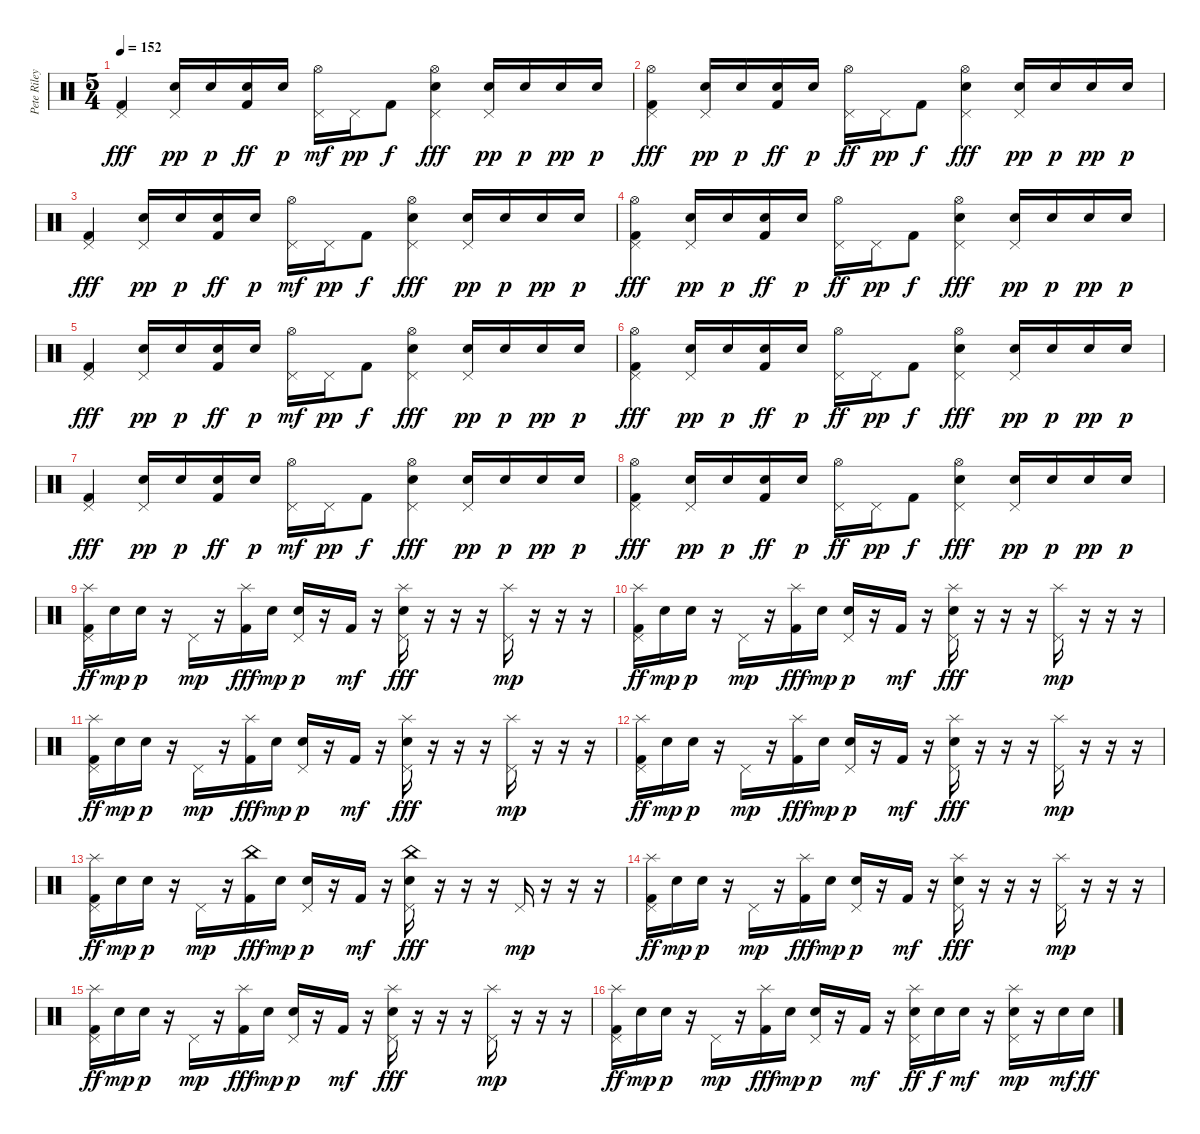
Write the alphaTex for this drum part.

\track ("Pete Riley" "Pete Riley") {instrument percussion}
\staff {score}
\articulation defaults
\ts (5 4)
\tempo 152
\clef neutral
\ks c
("Pedal Hi-Hat (hit)" "Kick (hit) 2").4{dy fff} ("Pedal Hi-Hat (hit)" "Electric Snare (hit)").16{dy pp} "Electric Snare (hit)".16{dy p} ("Electric Snare (hit)" "Kick (hit) 2").16{dy ff} "Electric Snare (hit)".16{dy p} ("Pedal Hi-Hat (hit)" "Hi-Hat (open)").16{dy mf} "Pedal Hi-Hat (hit)".16{dy pp} "Kick (hit) 2".8{dy f} ("Pedal Hi-Hat (hit)" "Hi-Hat (open)" "Electric Snare (hit)").4{dy fff} ("Pedal Hi-Hat (hit)" "Electric Snare (hit)").16{dy pp} "Electric Snare (hit)".16{dy p} "Electric Snare (hit)".16{dy pp} "Electric Snare (hit)".16{dy p} |
("Pedal Hi-Hat (hit)" "Hi-Hat (open)" "Kick (hit) 2").4{dy fff} ("Pedal Hi-Hat (hit)" "Electric Snare (hit)").16{dy pp} "Electric Snare (hit)".16{dy p} ("Electric Snare (hit)" "Kick (hit) 2").16{dy ff} "Electric Snare (hit)".16{dy p} ("Pedal Hi-Hat (hit)" "Hi-Hat (open)").16{dy ff} "Pedal Hi-Hat (hit)".16{dy pp} "Kick (hit) 2".8{dy f} ("Pedal Hi-Hat (hit)" "Hi-Hat (open)" "Electric Snare (hit)").4{dy fff} ("Pedal Hi-Hat (hit)" "Electric Snare (hit)").16{dy pp} "Electric Snare (hit)".16{dy p} "Electric Snare (hit)".16{dy pp} "Electric Snare (hit)".16{dy p} |
("Pedal Hi-Hat (hit)" "Kick (hit) 2").4{dy fff} ("Pedal Hi-Hat (hit)" "Electric Snare (hit)").16{dy pp} "Electric Snare (hit)".16{dy p} ("Electric Snare (hit)" "Kick (hit) 2").16{dy ff} "Electric Snare (hit)".16{dy p} ("Pedal Hi-Hat (hit)" "Hi-Hat (open)").16{dy mf} "Pedal Hi-Hat (hit)".16{dy pp} "Kick (hit) 2".8{dy f} ("Pedal Hi-Hat (hit)" "Hi-Hat (open)" "Electric Snare (hit)").4{dy fff} ("Pedal Hi-Hat (hit)" "Electric Snare (hit)").16{dy pp} "Electric Snare (hit)".16{dy p} "Electric Snare (hit)".16{dy pp} "Electric Snare (hit)".16{dy p} |
("Pedal Hi-Hat (hit)" "Hi-Hat (open)" "Kick (hit) 2").4{dy fff} ("Pedal Hi-Hat (hit)" "Electric Snare (hit)").16{dy pp} "Electric Snare (hit)".16{dy p} ("Electric Snare (hit)" "Kick (hit) 2").16{dy ff} "Electric Snare (hit)".16{dy p} ("Pedal Hi-Hat (hit)" "Hi-Hat (open)").16{dy ff} "Pedal Hi-Hat (hit)".16{dy pp} "Kick (hit) 2".8{dy f} ("Pedal Hi-Hat (hit)" "Hi-Hat (open)" "Electric Snare (hit)").4{dy fff} ("Pedal Hi-Hat (hit)" "Electric Snare (hit)").16{dy pp} "Electric Snare (hit)".16{dy p} "Electric Snare (hit)".16{dy pp} "Electric Snare (hit)".16{dy p} |
("Pedal Hi-Hat (hit)" "Kick (hit) 2").4{dy fff} ("Pedal Hi-Hat (hit)" "Electric Snare (hit)").16{dy pp} "Electric Snare (hit)".16{dy p} ("Electric Snare (hit)" "Kick (hit) 2").16{dy ff} "Electric Snare (hit)".16{dy p} ("Pedal Hi-Hat (hit)" "Hi-Hat (open)").16{dy mf} "Pedal Hi-Hat (hit)".16{dy pp} "Kick (hit) 2".8{dy f} ("Pedal Hi-Hat (hit)" "Hi-Hat (open)" "Electric Snare (hit)").4{dy fff} ("Pedal Hi-Hat (hit)" "Electric Snare (hit)").16{dy pp} "Electric Snare (hit)".16{dy p} "Electric Snare (hit)".16{dy pp} "Electric Snare (hit)".16{dy p} |
("Pedal Hi-Hat (hit)" "Hi-Hat (open)" "Kick (hit) 2").4{dy fff} ("Pedal Hi-Hat (hit)" "Electric Snare (hit)").16{dy pp} "Electric Snare (hit)".16{dy p} ("Electric Snare (hit)" "Kick (hit) 2").16{dy ff} "Electric Snare (hit)".16{dy p} ("Pedal Hi-Hat (hit)" "Hi-Hat (open)").16{dy ff} "Pedal Hi-Hat (hit)".16{dy pp} "Kick (hit) 2".8{dy f} ("Pedal Hi-Hat (hit)" "Hi-Hat (open)" "Electric Snare (hit)").4{dy fff} ("Pedal Hi-Hat (hit)" "Electric Snare (hit)").16{dy pp} "Electric Snare (hit)".16{dy p} "Electric Snare (hit)".16{dy pp} "Electric Snare (hit)".16{dy p} |
("Pedal Hi-Hat (hit)" "Kick (hit) 2").4{dy fff} ("Pedal Hi-Hat (hit)" "Electric Snare (hit)").16{dy pp} "Electric Snare (hit)".16{dy p} ("Electric Snare (hit)" "Kick (hit) 2").16{dy ff} "Electric Snare (hit)".16{dy p} ("Pedal Hi-Hat (hit)" "Hi-Hat (open)").16{dy mf} "Pedal Hi-Hat (hit)".16{dy pp} "Kick (hit) 2".8{dy f} ("Pedal Hi-Hat (hit)" "Hi-Hat (open)" "Electric Snare (hit)").4{dy fff} ("Pedal Hi-Hat (hit)" "Electric Snare (hit)").16{dy pp} "Electric Snare (hit)".16{dy p} "Electric Snare (hit)".16{dy pp} "Electric Snare (hit)".16{dy p} |
("Pedal Hi-Hat (hit)" "Hi-Hat (open)" "Kick (hit) 2").4{dy fff} ("Pedal Hi-Hat (hit)" "Electric Snare (hit)").16{dy pp} "Electric Snare (hit)".16{dy p} ("Electric Snare (hit)" "Kick (hit) 2").16{dy ff} "Electric Snare (hit)".16{dy p} ("Pedal Hi-Hat (hit)" "Hi-Hat (open)").16{dy ff} "Pedal Hi-Hat (hit)".16{dy pp} "Kick (hit) 2".8{dy f} ("Pedal Hi-Hat (hit)" "Hi-Hat (open)" "Electric Snare (hit)").4{dy fff} ("Pedal Hi-Hat (hit)" "Electric Snare (hit)").16{dy pp} "Electric Snare (hit)".16{dy p} "Electric Snare (hit)".16{dy pp} "Electric Snare (hit)".16{dy p} |
("Splash (hit)" "Pedal Hi-Hat (hit)" "Kick (hit) 2").16{dy ff} "Electric Snare (hit)".16{dy mp} "Electric Snare (hit)".16{dy p} r.16 "Pedal Hi-Hat (hit)".16{dy mp} r.16 ("Splash (hit)" "Kick (hit) 2").16{dy fff} "Electric Snare (hit)".16{dy mp} ("Pedal Hi-Hat (hit)" "Electric Snare (hit)").16{dy p} r.16 "Kick (hit) 2".16{dy mf} r.16 ("Splash (hit)" "Pedal Hi-Hat (hit)" "Electric Snare (hit)").16{dy fff} r.16 r.16 r.16 ("Splash (hit)" "Pedal Hi-Hat (hit)").16{dy mp} r.16 r.16 r.16 |
("Splash (hit)" "Pedal Hi-Hat (hit)" "Kick (hit) 2").16{dy ff} "Electric Snare (hit)".16{dy mp} "Electric Snare (hit)".16{dy p} r.16 "Pedal Hi-Hat (hit)".16{dy mp} r.16 ("Splash (hit)" "Kick (hit) 2").16{dy fff} "Electric Snare (hit)".16{dy mp} ("Pedal Hi-Hat (hit)" "Electric Snare (hit)").16{dy p} r.16 "Kick (hit) 2".16{dy mf} r.16 ("Splash (hit)" "Pedal Hi-Hat (hit)" "Electric Snare (hit)").16{dy fff} r.16 r.16 r.16 ("Splash (hit)" "Pedal Hi-Hat (hit)").16{dy mp} r.16 r.16 r.16 |
("Splash (hit)" "Pedal Hi-Hat (hit)" "Kick (hit) 2").16{dy ff} "Electric Snare (hit)".16{dy mp} "Electric Snare (hit)".16{dy p} r.16 "Pedal Hi-Hat (hit)".16{dy mp} r.16 ("Splash (hit)" "Kick (hit) 2").16{dy fff} "Electric Snare (hit)".16{dy mp} ("Pedal Hi-Hat (hit)" "Electric Snare (hit)").16{dy p} r.16 "Kick (hit) 2".16{dy mf} r.16 ("Splash (hit)" "Pedal Hi-Hat (hit)" "Electric Snare (hit)").16{dy fff} r.16 r.16 r.16 ("Splash (hit)" "Pedal Hi-Hat (hit)").16{dy mp} r.16 r.16 r.16 |
("Splash (hit)" "Pedal Hi-Hat (hit)" "Kick (hit) 2").16{dy ff} "Electric Snare (hit)".16{dy mp} "Electric Snare (hit)".16{dy p} r.16 "Pedal Hi-Hat (hit)".16{dy mp} r.16 ("Splash (hit)" "Kick (hit) 2").16{dy fff} "Electric Snare (hit)".16{dy mp} ("Pedal Hi-Hat (hit)" "Electric Snare (hit)").16{dy p} r.16 "Kick (hit) 2".16{dy mf} r.16 ("Splash (hit)" "Pedal Hi-Hat (hit)" "Electric Snare (hit)").16{dy fff} r.16 r.16 r.16 ("Splash (hit)" "Pedal Hi-Hat (hit)").16{dy mp} r.16 r.16 r.16 |
("Splash (hit)" "Pedal Hi-Hat (hit)" "Kick (hit) 2").16{dy ff} "Electric Snare (hit)".16{dy mp} "Electric Snare (hit)".16{dy p} r.16 "Pedal Hi-Hat (hit)".16{dy mp} r.16 ("China (hit)" "Kick (hit) 2").16{dy fff} "Electric Snare (hit)".16{dy mp} ("Pedal Hi-Hat (hit)" "Electric Snare (hit)").16{dy p} r.16 "Kick (hit) 2".16{dy mf} r.16 ("China (hit)" "Pedal Hi-Hat (hit)" "Electric Snare (hit)").16{dy fff} r.16 r.16 r.16 "Pedal Hi-Hat (hit)".16{dy mp} r.16 r.16 r.16 |
("Splash (hit)" "Pedal Hi-Hat (hit)" "Kick (hit) 2").16{dy ff} "Electric Snare (hit)".16{dy mp} "Electric Snare (hit)".16{dy p} r.16 "Pedal Hi-Hat (hit)".16{dy mp} r.16 ("Splash (hit)" "Kick (hit) 2").16{dy fff} "Electric Snare (hit)".16{dy mp} ("Pedal Hi-Hat (hit)" "Electric Snare (hit)").16{dy p} r.16 "Kick (hit) 2".16{dy mf} r.16 ("Splash (hit)" "Pedal Hi-Hat (hit)" "Electric Snare (hit)").16{dy fff} r.16 r.16 r.16 ("Splash (hit)" "Pedal Hi-Hat (hit)").16{dy mp} r.16 r.16 r.16 |
("Splash (hit)" "Pedal Hi-Hat (hit)" "Kick (hit) 2").16{dy ff} "Electric Snare (hit)".16{dy mp} "Electric Snare (hit)".16{dy p} r.16 "Pedal Hi-Hat (hit)".16{dy mp} r.16 ("Splash (hit)" "Kick (hit) 2").16{dy fff} "Electric Snare (hit)".16{dy mp} ("Pedal Hi-Hat (hit)" "Electric Snare (hit)").16{dy p} r.16 "Kick (hit) 2".16{dy mf} r.16 ("Splash (hit)" "Pedal Hi-Hat (hit)" "Electric Snare (hit)").16{dy fff} r.16 r.16 r.16 ("Splash (hit)" "Pedal Hi-Hat (hit)").16{dy mp} r.16 r.16 r.16 |
("Splash (hit)" "Pedal Hi-Hat (hit)" "Kick (hit) 2").16{dy ff} "Electric Snare (hit)".16{dy mp} "Electric Snare (hit)".16{dy p} r.16 "Pedal Hi-Hat (hit)".16{dy mp} r.16 ("Splash (hit)" "Kick (hit) 2").16{dy fff} "Electric Snare (hit)".16{dy mp} ("Pedal Hi-Hat (hit)" "Electric Snare (hit)").16{dy p} r.16 "Kick (hit) 2".16{dy mf} r.16 ("Splash (hit)" "Pedal Hi-Hat (hit)" "Electric Snare (hit)").16{dy ff} "Electric Snare (hit)".16{dy f} "Electric Snare (hit)".16{dy mf} r.16 ("Splash (hit)" "Pedal Hi-Hat (hit)" "Electric Snare (hit)").16{dy mp} r.16 "Electric Snare (hit)".16{dy mf} "Electric Snare (hit)".16{dy ff}
